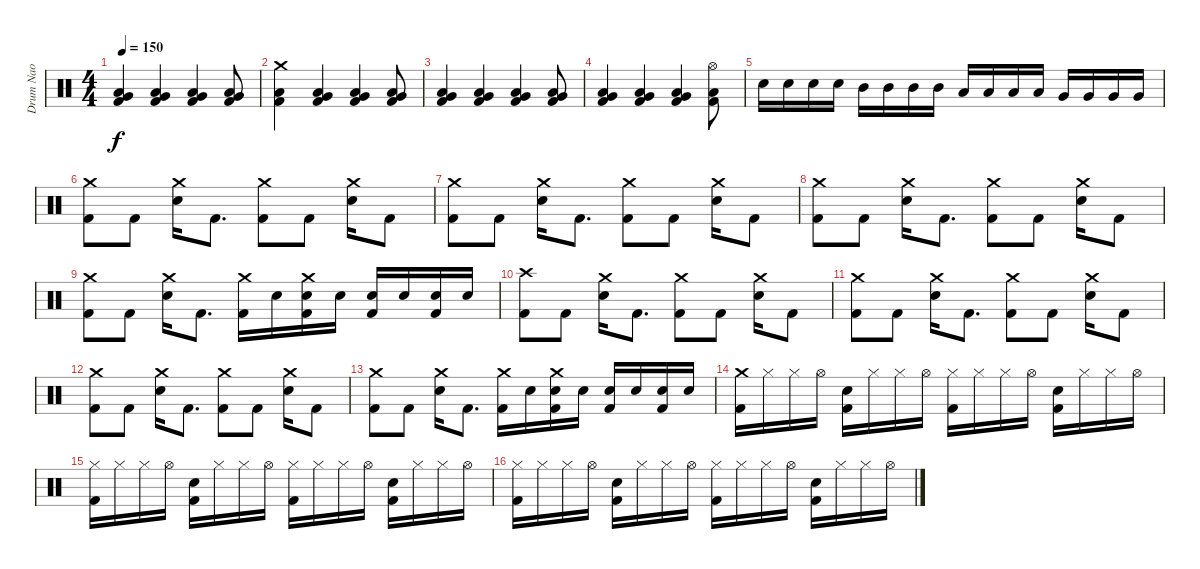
\track ("Drum Nao" "Drum Nao") {instrument percussion}
\staff {score}
\articulation defaults
\ts (4 4)
\tempo 150
\clef neutral
\ks c
("Very Low Tom (hit)" "Low Tom (hit)" "Kick (hit) 2").4{dy f} ("Very Low Tom (hit)" "Low Tom (hit)" "Kick (hit) 2").4 ("Very Low Tom (hit)" "Low Tom (hit)" "Kick (hit) 2").4 ("Very Low Tom (hit)" "Low Tom (hit)" "Kick (hit) 2").8 |
("Crash medium (hit)" "Low Tom (hit)" "Kick (hit) 2").4 ("Very Low Tom (hit)" "Low Tom (hit)" "Kick (hit) 2").4 ("Very Low Tom (hit)" "Low Tom (hit)" "Kick (hit) 2").4 ("Very Low Tom (hit)" "Low Tom (hit)" "Kick (hit) 2").8 |
("Very Low Tom (hit)" "Low Tom (hit)" "Kick (hit) 2").4 ("Very Low Tom (hit)" "Low Tom (hit)" "Kick (hit) 2").4 ("Very Low Tom (hit)" "Low Tom (hit)" "Kick (hit) 2").4 ("Very Low Tom (hit)" "Low Tom (hit)" "Kick (hit) 2").8 |
("Very Low Tom (hit)" "Low Tom (hit)" "Kick (hit) 2").4 ("Very Low Tom (hit)" "Low Tom (hit)" "Kick (hit) 2").4 ("Very Low Tom (hit)" "Low Tom (hit)" "Kick (hit) 2").4 ("Hi-Hat (open)" "Low Tom (hit)" "Kick (hit) 2").8 |
"Electric Snare (hit)".16 "Electric Snare (hit)".16 "Electric Snare (hit)".16 "Electric Snare (hit)".16 "Mid Tom (hit)".16 "Mid Tom (hit)".16 "Mid Tom (hit)".16 "Mid Tom (hit)".16 "Low Tom (hit)".16 "Low Tom (hit)".16 "Low Tom (hit)".16 "Low Tom (hit)".16 "Very Low Tom (hit)".16 "Very Low Tom (hit)".16 "Very Low Tom (hit)".16 "Very Low Tom (hit)".16 |
("Crash medium (hit)" "Kick (hit) 2").8 "Kick (hit) 2".8 ("Crash medium (hit)" "Electric Snare (hit)").16 "Kick (hit) 2".8{d} ("Crash medium (hit)" "Kick (hit) 2").8 "Kick (hit) 2".8 ("Crash medium (hit)" "Electric Snare (hit)").16 "Kick (hit) 2".8 |
("Crash medium (hit)" "Kick (hit) 2").8 "Kick (hit) 2".8 ("Crash medium (hit)" "Electric Snare (hit)").16 "Kick (hit) 2".8{d} ("Crash medium (hit)" "Kick (hit) 2").8 "Kick (hit) 2".8 ("Crash medium (hit)" "Electric Snare (hit)").16 "Kick (hit) 2".8 |
("Crash medium (hit)" "Kick (hit) 2").8 "Kick (hit) 2".8 ("Crash medium (hit)" "Electric Snare (hit)").16 "Kick (hit) 2".8{d} ("Crash medium (hit)" "Kick (hit) 2").8 "Kick (hit) 2".8 ("Crash medium (hit)" "Electric Snare (hit)").16 "Kick (hit) 2".8 |
("Crash medium (hit)" "Kick (hit) 2").8 "Kick (hit) 2".8 ("Crash medium (hit)" "Electric Snare (hit)").16 "Kick (hit) 2".8{d} ("Crash medium (hit)" "Kick (hit) 2").16 "Electric Snare (hit)".16 ("Crash medium (hit)" "Electric Snare (hit)" "Kick (hit) 2").16 "Electric Snare (hit)".16 ("Electric Snare (hit)" "Kick (hit) 2").16 "Electric Snare (hit)".16 ("Electric Snare (hit)" "Kick (hit) 2").16 "Electric Snare (hit)".16 |
("Crash high (hit)" "Kick (hit) 2").8 "Kick (hit) 2".8 ("Crash medium (hit)" "Electric Snare (hit)").16 "Kick (hit) 2".8{d} ("Crash medium (hit)" "Kick (hit) 2").8 "Kick (hit) 2".8 ("Crash medium (hit)" "Electric Snare (hit)").16 "Kick (hit) 2".8 |
("Crash medium (hit)" "Kick (hit) 2").8 "Kick (hit) 2".8 ("Crash medium (hit)" "Electric Snare (hit)").16 "Kick (hit) 2".8{d} ("Crash medium (hit)" "Kick (hit) 2").8 "Kick (hit) 2".8 ("Crash medium (hit)" "Electric Snare (hit)").16 "Kick (hit) 2".8 |
("Crash medium (hit)" "Kick (hit) 2").8 "Kick (hit) 2".8 ("Crash medium (hit)" "Electric Snare (hit)").16 "Kick (hit) 2".8{d} ("Crash medium (hit)" "Kick (hit) 2").8 "Kick (hit) 2".8 ("Crash medium (hit)" "Electric Snare (hit)").16 "Kick (hit) 2".8 |
("Crash medium (hit)" "Kick (hit) 2").8 "Kick (hit) 2".8 ("Crash medium (hit)" "Electric Snare (hit)").16 "Kick (hit) 2".8{d} ("Crash medium (hit)" "Kick (hit) 2").16 "Electric Snare (hit)".16 ("Crash medium (hit)" "Electric Snare (hit)" "Kick (hit) 2").16 "Electric Snare (hit)".16 ("Electric Snare (hit)" "Kick (hit) 2").16 "Electric Snare (hit)".16 ("Electric Snare (hit)" "Kick (hit) 2").16 "Electric Snare (hit)".16 |
("Crash medium (hit)" "Kick (hit) 2").16 "Hi-Hat (closed)".16 "Hi-Hat (closed)".16 "Hi-Hat (open)".16 ("Electric Snare (hit)" "Kick (hit) 2").16 "Hi-Hat (closed)".16 "Hi-Hat (closed)".16 "Hi-Hat (open)".16 ("Hi-Hat (closed)" "Kick (hit) 2").16 "Hi-Hat (closed)".16 "Hi-Hat (closed)".16 "Hi-Hat (open)".16 ("Electric Snare (hit)" "Kick (hit) 2").16 "Hi-Hat (closed)".16 "Hi-Hat (closed)".16 "Hi-Hat (open)".16 |
("Hi-Hat (closed)" "Kick (hit) 2").16 "Hi-Hat (closed)".16 "Hi-Hat (closed)".16 "Hi-Hat (open)".16 ("Electric Snare (hit)" "Kick (hit) 2").16 "Hi-Hat (closed)".16 "Hi-Hat (closed)".16 "Hi-Hat (open)".16 ("Hi-Hat (closed)" "Kick (hit) 2").16 "Hi-Hat (closed)".16 "Hi-Hat (closed)".16 "Hi-Hat (open)".16 ("Electric Snare (hit)" "Kick (hit) 2").16 "Hi-Hat (closed)".16 "Hi-Hat (closed)".16 "Hi-Hat (open)".16 |
("Hi-Hat (closed)" "Kick (hit) 2").16 "Hi-Hat (closed)".16 "Hi-Hat (closed)".16 "Hi-Hat (open)".16 ("Electric Snare (hit)" "Kick (hit) 2").16 "Hi-Hat (closed)".16 "Hi-Hat (closed)".16 "Hi-Hat (open)".16 ("Hi-Hat (closed)" "Kick (hit) 2").16 "Hi-Hat (closed)".16 "Hi-Hat (closed)".16 "Hi-Hat (open)".16 ("Electric Snare (hit)" "Kick (hit) 2").16 "Hi-Hat (closed)".16 "Hi-Hat (closed)".16 "Hi-Hat (open)".16
